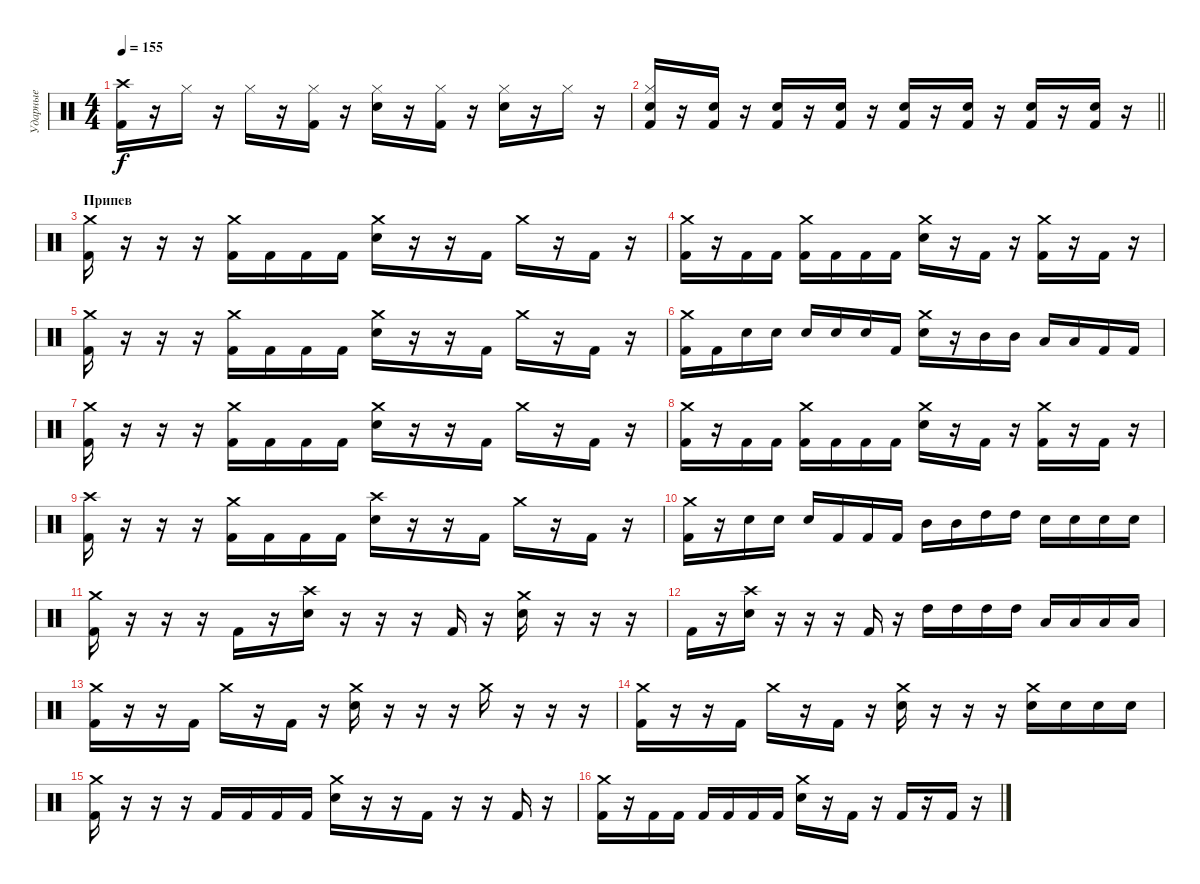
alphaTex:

\track ("Ударные" "Ударные") {instrument percussion}
\staff {score}
\articulation defaults
\ts (4 4)
\tempo 155
\clef neutral
\ks c
("Crash high (hit)" "Kick (hit) 2").16{dy f} r.16 "Hi-Hat (closed)".16 r.16 "Hi-Hat (closed)".16 r.16 ("Hi-Hat (closed)" "Kick (hit) 2").16 r.16 ("Hi-Hat (closed)" "Snare (hit) 2").16 r.16 ("Hi-Hat (closed)" "Kick (hit) 2").16 r.16 ("Hi-Hat (closed)" "Snare (hit) 2").16 r.16 "Hi-Hat (closed)".16 r.16 |
\barLineRight lightlight
("Hi-Hat (closed)" "Snare (hit) 2" "Kick (hit) 2").16 r.16 ("Snare (hit) 2" "Kick (hit) 2").16 r.16 ("Snare (hit) 2" "Kick (hit) 2").16 r.16 ("Snare (hit) 2" "Kick (hit) 2").16 r.16 ("Snare (hit) 2" "Kick (hit) 2").16 r.16 ("Snare (hit) 2" "Kick (hit) 2").16 r.16 ("Snare (hit) 2" "Kick (hit) 2").16 r.16 ("Snare (hit) 2" "Kick (hit) 2").16 r.16 |
\section ("" "Припев")
("Crash medium (hit)" "Kick (hit) 2").16 r.16 r.16 r.16 ("Crash medium (hit)" "Kick (hit) 2").16 "Kick (hit) 2".16 "Kick (hit) 2".16 "Kick (hit) 2".16 ("Crash medium (hit)" "Snare (hit) 2").16 r.16 r.16 "Kick (hit) 2".16 "Crash medium (hit)".16 r.16 "Kick (hit) 2".16 r.16 |
("Crash medium (hit)" "Kick (hit) 2").16 r.16 "Kick (hit) 2".16 "Kick (hit) 2".16 ("Crash medium (hit)" "Kick (hit) 2").16 "Kick (hit) 2".16 "Kick (hit) 2".16 "Kick (hit) 2".16 ("Crash medium (hit)" "Snare (hit) 2").16 r.16 "Kick (hit) 2".16 r.16 ("Crash medium (hit)" "Kick (hit) 2").16 r.16 "Kick (hit) 2".16 r.16 |
("Crash medium (hit)" "Kick (hit) 2").16 r.16 r.16 r.16 ("Crash medium (hit)" "Kick (hit) 2").16 "Kick (hit) 2".16 "Kick (hit) 2".16 "Kick (hit) 2".16 ("Crash medium (hit)" "Snare (hit) 2").16 r.16 r.16 "Kick (hit) 2".16 "Crash medium (hit)".16 r.16 "Kick (hit) 2".16 r.16 |
("Crash medium (hit)" "Kick (hit) 2").16 "Kick (hit) 2".16 "Snare (hit) 2".16 "Snare (hit) 2".16 "Snare (hit) 2".16 "Snare (hit) 2".16 "Snare (hit) 2".16 "Kick (hit) 2".16 ("Crash medium (hit)" "Snare (hit) 2").16 r.16 "Mid Tom (hit)".16 "Mid Tom (hit)".16 "Low Tom (hit)".16 "Low Tom (hit)".16 "Kick (hit) 2".16 "Kick (hit) 2".16 |
("Crash medium (hit)" "Kick (hit) 2").16 r.16 r.16 r.16 ("Crash medium (hit)" "Kick (hit) 2").16 "Kick (hit) 2".16 "Kick (hit) 2".16 "Kick (hit) 2".16 ("Crash medium (hit)" "Snare (hit) 2").16 r.16 r.16 "Kick (hit) 2".16 "Crash medium (hit)".16 r.16 "Kick (hit) 2".16 r.16 |
("Crash medium (hit)" "Kick (hit) 2").16 r.16 "Kick (hit) 2".16 "Kick (hit) 2".16 ("Crash medium (hit)" "Kick (hit) 2").16 "Kick (hit) 2".16 "Kick (hit) 2".16 "Kick (hit) 2".16 ("Crash medium (hit)" "Snare (hit) 2").16 r.16 "Kick (hit) 2".16 r.16 ("Crash medium (hit)" "Kick (hit) 2").16 r.16 "Kick (hit) 2".16 r.16 |
("Crash high (hit)" "Kick (hit) 2").16 r.16 r.16 r.16 ("Crash medium (hit)" "Kick (hit) 2").16 "Kick (hit) 2".16 "Kick (hit) 2".16 "Kick (hit) 2".16 ("Crash high (hit)" "Snare (hit) 2").16 r.16 r.16 "Kick (hit) 2".16 "Crash medium (hit)".16 r.16 "Kick (hit) 2".16 r.16 |
("Crash medium (hit)" "Kick (hit) 2").16 r.16 "Snare (hit) 2".16 "Snare (hit) 2".16 "Snare (hit) 2".16 "Kick (hit) 2".16 "Kick (hit) 2".16 "Kick (hit) 2".16 "Mid Tom (hit)".16 "Mid Tom (hit)".16 "High Tom (hit)".16 "High Tom (hit)".16 "Snare (hit) 2".16 "Snare (hit) 2".16 "Snare (hit) 2".16 "Snare (hit) 2".16 |
("Crash medium (hit)" "Kick (hit) 2").16 r.16 r.16 r.16 "Kick (hit) 2".16 r.16 ("Crash high (hit)" "Snare (hit) 2").16 r.16 r.16 r.16 "Kick (hit) 2".16 r.16 ("Crash medium (hit)" "Snare (hit) 2").16 r.16 r.16 r.16 |
"Kick (hit) 2".16 r.16 ("Crash high (hit)" "Snare (hit) 2").16 r.16 r.16 r.16 "Kick (hit) 2".16 r.16 "High Tom (hit)".16 "High Tom (hit)".16 "High Tom (hit)".16 "High Tom (hit)".16 "Low Tom (hit)".16 "Low Tom (hit)".16 "Low Tom (hit)".16 "Low Tom (hit)".16 |
("Crash medium (hit)" "Kick (hit) 2").16 r.16 r.16 "Kick (hit) 2".16 "Crash medium (hit)".16 r.16 "Kick (hit) 2".16 r.16 ("Crash medium (hit)" "Snare (hit) 2").16 r.16 r.16 r.16 "Crash medium (hit)".16 r.16 r.16 r.16 |
("Crash medium (hit)" "Kick (hit) 2").16 r.16 r.16 "Kick (hit) 2".16 "Crash medium (hit)".16 r.16 "Kick (hit) 2".16 r.16 ("Crash medium (hit)" "Snare (hit) 2").16 r.16 r.16 r.16 ("Crash medium (hit)" "Snare (hit) 2").16 "Snare (hit) 2".16 "Snare (hit) 2".16 "Snare (hit) 2".16 |
("Crash medium (hit)" "Kick (hit) 2").16 r.16 r.16 r.16 "Kick (hit) 2".16 "Kick (hit) 2".16 "Kick (hit) 2".16 "Kick (hit) 2".16 ("Crash medium (hit)" "Snare (hit) 2").16 r.16 r.16 "Kick (hit) 2".16 r.16 r.16 "Kick (hit) 2".16 r.16 |
("Crash medium (hit)" "Kick (hit) 2").16 r.16 "Kick (hit) 2".16 "Kick (hit) 2".16 "Kick (hit) 2".16 "Kick (hit) 2".16 "Kick (hit) 2".16 "Kick (hit) 2".16 ("Crash medium (hit)" "Snare (hit) 2").16 r.16 "Kick (hit) 2".16 r.16 "Kick (hit) 2".16 r.16 "Kick (hit) 2".16 r.16
